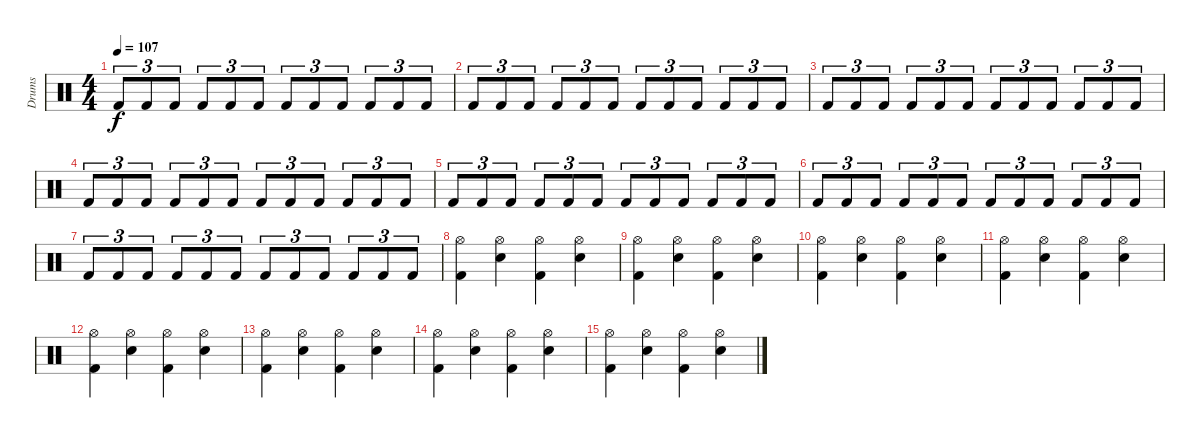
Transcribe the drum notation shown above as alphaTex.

\track ("Drums" "Drums") {instrument percussion}
\staff {score}
\articulation defaults
\ts (4 4)
\tempo 107
\clef neutral
\ks c "Kick (hit) 2".8{tu (3 2) dy f} "Kick (hit) 2".8{tu (3 2)} "Kick (hit) 2".8{tu (3 2)} "Kick (hit) 2".8{tu (3 2)} "Kick (hit) 2".8{tu (3 2)} "Kick (hit) 2".8{tu (3 2)} "Kick (hit) 2".8{tu (3 2)} "Kick (hit) 2".8{tu (3 2)} "Kick (hit) 2".8{tu (3 2)} "Kick (hit) 2".8{tu (3 2)} "Kick (hit) 2".8{tu (3 2)} "Kick (hit) 2".8{tu (3 2)}
|
"Kick (hit) 2".8{tu (3 2)} "Kick (hit) 2".8{tu (3 2)} "Kick (hit) 2".8{tu (3 2)} "Kick (hit) 2".8{tu (3 2)} "Kick (hit) 2".8{tu (3 2)} "Kick (hit) 2".8{tu (3 2)} "Kick (hit) 2".8{tu (3 2)} "Kick (hit) 2".8{tu (3 2)} "Kick (hit) 2".8{tu (3 2)} "Kick (hit) 2".8{tu (3 2)} "Kick (hit) 2".8{tu (3 2)} "Kick (hit) 2".8{tu (3 2)} |
"Kick (hit) 2".8{tu (3 2)} "Kick (hit) 2".8{tu (3 2)} "Kick (hit) 2".8{tu (3 2)} "Kick (hit) 2".8{tu (3 2)} "Kick (hit) 2".8{tu (3 2)} "Kick (hit) 2".8{tu (3 2)} "Kick (hit) 2".8{tu (3 2)} "Kick (hit) 2".8{tu (3 2)} "Kick (hit) 2".8{tu (3 2)} "Kick (hit) 2".8{tu (3 2)} "Kick (hit) 2".8{tu (3 2)} "Kick (hit) 2".8{tu (3 2)} |
"Kick (hit) 2".8{tu (3 2)} "Kick (hit) 2".8{tu (3 2)} "Kick (hit) 2".8{tu (3 2)} "Kick (hit) 2".8{tu (3 2)} "Kick (hit) 2".8{tu (3 2)} "Kick (hit) 2".8{tu (3 2)} "Kick (hit) 2".8{tu (3 2)} "Kick (hit) 2".8{tu (3 2)} "Kick (hit) 2".8{tu (3 2)} "Kick (hit) 2".8{tu (3 2)} "Kick (hit) 2".8{tu (3 2)} "Kick (hit) 2".8{tu (3 2)} |
"Kick (hit) 2".8{tu (3 2)} "Kick (hit) 2".8{tu (3 2)} "Kick (hit) 2".8{tu (3 2)} "Kick (hit) 2".8{tu (3 2)} "Kick (hit) 2".8{tu (3 2)} "Kick (hit) 2".8{tu (3 2)} "Kick (hit) 2".8{tu (3 2)} "Kick (hit) 2".8{tu (3 2)} "Kick (hit) 2".8{tu (3 2)} "Kick (hit) 2".8{tu (3 2)} "Kick (hit) 2".8{tu (3 2)} "Kick (hit) 2".8{tu (3 2)} |
"Kick (hit) 2".8{tu (3 2)} "Kick (hit) 2".8{tu (3 2)} "Kick (hit) 2".8{tu (3 2)} "Kick (hit) 2".8{tu (3 2)} "Kick (hit) 2".8{tu (3 2)} "Kick (hit) 2".8{tu (3 2)} "Kick (hit) 2".8{tu (3 2)} "Kick (hit) 2".8{tu (3 2)} "Kick (hit) 2".8{tu (3 2)} "Kick (hit) 2".8{tu (3 2)} "Kick (hit) 2".8{tu (3 2)} "Kick (hit) 2".8{tu (3 2)} |
"Kick (hit) 2".8{tu (3 2)} "Kick (hit) 2".8{tu (3 2)} "Kick (hit) 2".8{tu (3 2)} "Kick (hit) 2".8{tu (3 2)} "Kick (hit) 2".8{tu (3 2)} "Kick (hit) 2".8{tu (3 2)} "Kick (hit) 2".8{tu (3 2)} "Kick (hit) 2".8{tu (3 2)} "Kick (hit) 2".8{tu (3 2)} "Kick (hit) 2".8{tu (3 2)} "Kick (hit) 2".8{tu (3 2)} "Kick (hit) 2".8{tu (3 2)} |
("Kick (hit) 2" "Hi-Hat (open)").4 ("Snare (hit) 2" "Hi-Hat (open)").4 ("Kick (hit) 2" "Hi-Hat (open)").4 ("Snare (hit) 2" "Hi-Hat (open)").4 |
("Kick (hit) 2" "Hi-Hat (open)").4 ("Snare (hit) 2" "Hi-Hat (open)").4 ("Kick (hit) 2" "Hi-Hat (open)").4 ("Snare (hit) 2" "Hi-Hat (open)").4 |
("Kick (hit) 2" "Hi-Hat (open)").4 ("Snare (hit) 2" "Hi-Hat (open)").4 ("Kick (hit) 2" "Hi-Hat (open)").4 ("Snare (hit) 2" "Hi-Hat (open)").4 |
("Kick (hit) 2" "Hi-Hat (open)").4 ("Snare (hit) 2" "Hi-Hat (open)").4 ("Kick (hit) 2" "Hi-Hat (open)").4 ("Snare (hit) 2" "Hi-Hat (open)").4 |
("Kick (hit) 2" "Hi-Hat (open)").4 ("Snare (hit) 2" "Hi-Hat (open)").4 ("Kick (hit) 2" "Hi-Hat (open)").4 ("Snare (hit) 2" "Hi-Hat (open)").4 |
("Kick (hit) 2" "Hi-Hat (open)").4 ("Snare (hit) 2" "Hi-Hat (open)").4 ("Kick (hit) 2" "Hi-Hat (open)").4 ("Snare (hit) 2" "Hi-Hat (open)").4 |
("Kick (hit) 2" "Hi-Hat (open)").4 ("Snare (hit) 2" "Hi-Hat (open)").4 ("Kick (hit) 2" "Hi-Hat (open)").4 ("Snare (hit) 2" "Hi-Hat (open)").4 |
("Kick (hit) 2" "Hi-Hat (open)").4 ("Snare (hit) 2" "Hi-Hat (open)").4 ("Kick (hit) 2" "Hi-Hat (open)").4 ("Snare (hit) 2" "Hi-Hat (open)").4
